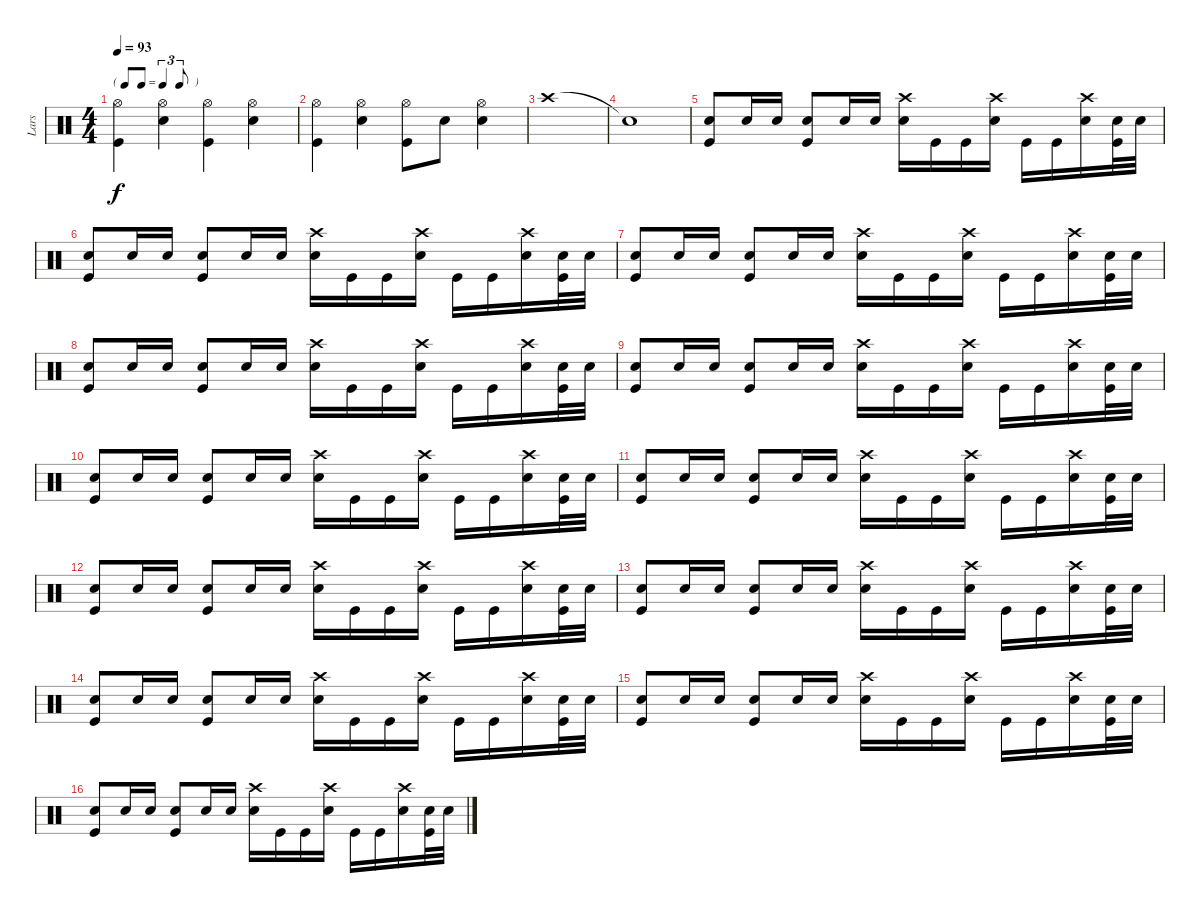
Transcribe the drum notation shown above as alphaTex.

\track ("Lars" "Lars") {instrument percussion}
\staff {score}
\articulation defaults
\ts (4 4)
\tf triplet8th
\tempo 93
\clef neutral
\ks c
("Hi-Hat (open)" "Kick (hit)").4{dy f} ("Hi-Hat (open)" "Snare (hit) 2").4 ("Hi-Hat (open)" "Kick (hit)").4 ("Hi-Hat (open)" "Snare (hit) 2").4 |
("Hi-Hat (open)" "Kick (hit)").4 ("Hi-Hat (open)" "Snare (hit) 2").4 ("Hi-Hat (open)" "Kick (hit)").8 "Snare (hit) 2".8 ("Hi-Hat (open)" "Snare (hit) 2").4 |
"Crash high (hit)".1 |
"Snare (hit)"{t}.1 |
("Snare (hit) 2" "Kick (hit)").8 "Snare (hit) 2".16 "Snare (hit) 2".16 ("Snare (hit) 2" "Kick (hit)").8 "Snare (hit) 2".16 "Snare (hit) 2".16 ("Crash high (hit)" "Snare (hit) 2").16 "Kick (hit)".16 "Kick (hit)".16 ("Crash high (hit)" "Snare (hit) 2").16 "Kick (hit)".16 "Kick (hit)".16 ("Crash high (hit)" "Snare (hit) 2").16 ("Snare (hit) 2" "Kick (hit)").32 "Snare (hit) 2".32 |
("Snare (hit) 2" "Kick (hit)").8 "Snare (hit) 2".16 "Snare (hit) 2".16 ("Snare (hit) 2" "Kick (hit)").8 "Snare (hit) 2".16 "Snare (hit) 2".16 ("Crash high (hit)" "Snare (hit) 2").16 "Kick (hit)".16 "Kick (hit)".16 ("Crash high (hit)" "Snare (hit) 2").16 "Kick (hit)".16 "Kick (hit)".16 ("Crash high (hit)" "Snare (hit) 2").16 ("Snare (hit) 2" "Kick (hit)").32 "Snare (hit) 2".32 |
("Snare (hit) 2" "Kick (hit)").8 "Snare (hit) 2".16 "Snare (hit) 2".16 ("Snare (hit) 2" "Kick (hit)").8 "Snare (hit) 2".16 "Snare (hit) 2".16 ("Crash high (hit)" "Snare (hit) 2").16 "Kick (hit)".16 "Kick (hit)".16 ("Crash high (hit)" "Snare (hit) 2").16 "Kick (hit)".16 "Kick (hit)".16 ("Crash high (hit)" "Snare (hit) 2").16 ("Snare (hit) 2" "Kick (hit)").32 "Snare (hit) 2".32 |
("Snare (hit) 2" "Kick (hit)").8 "Snare (hit) 2".16 "Snare (hit) 2".16 ("Snare (hit) 2" "Kick (hit)").8 "Snare (hit) 2".16 "Snare (hit) 2".16 ("Crash high (hit)" "Snare (hit) 2").16 "Kick (hit)".16 "Kick (hit)".16 ("Crash high (hit)" "Snare (hit) 2").16 "Kick (hit)".16 "Kick (hit)".16 ("Crash high (hit)" "Snare (hit) 2").16 ("Snare (hit) 2" "Kick (hit)").32 "Snare (hit) 2".32 |
("Snare (hit) 2" "Kick (hit)").8 "Snare (hit) 2".16 "Snare (hit) 2".16 ("Snare (hit) 2" "Kick (hit)").8 "Snare (hit) 2".16 "Snare (hit) 2".16 ("Crash high (hit)" "Snare (hit) 2").16 "Kick (hit)".16 "Kick (hit)".16 ("Crash high (hit)" "Snare (hit) 2").16 "Kick (hit)".16 "Kick (hit)".16 ("Crash high (hit)" "Snare (hit) 2").16 ("Snare (hit) 2" "Kick (hit)").32 "Snare (hit) 2".32 |
("Snare (hit) 2" "Kick (hit)").8 "Snare (hit) 2".16 "Snare (hit) 2".16 ("Snare (hit) 2" "Kick (hit)").8 "Snare (hit) 2".16 "Snare (hit) 2".16 ("Crash high (hit)" "Snare (hit) 2").16 "Kick (hit)".16 "Kick (hit)".16 ("Crash high (hit)" "Snare (hit) 2").16 "Kick (hit)".16 "Kick (hit)".16 ("Crash high (hit)" "Snare (hit) 2").16 ("Snare (hit) 2" "Kick (hit)").32 "Snare (hit) 2".32 |
("Snare (hit) 2" "Kick (hit)").8 "Snare (hit) 2".16 "Snare (hit) 2".16 ("Snare (hit) 2" "Kick (hit)").8 "Snare (hit) 2".16 "Snare (hit) 2".16 ("Crash high (hit)" "Snare (hit) 2").16 "Kick (hit)".16 "Kick (hit)".16 ("Crash high (hit)" "Snare (hit) 2").16 "Kick (hit)".16 "Kick (hit)".16 ("Crash high (hit)" "Snare (hit) 2").16 ("Snare (hit) 2" "Kick (hit)").32 "Snare (hit) 2".32 |
("Snare (hit) 2" "Kick (hit)").8 "Snare (hit) 2".16 "Snare (hit) 2".16 ("Snare (hit) 2" "Kick (hit)").8 "Snare (hit) 2".16 "Snare (hit) 2".16 ("Crash high (hit)" "Snare (hit) 2").16 "Kick (hit)".16 "Kick (hit)".16 ("Crash high (hit)" "Snare (hit) 2").16 "Kick (hit)".16 "Kick (hit)".16 ("Crash high (hit)" "Snare (hit) 2").16 ("Snare (hit) 2" "Kick (hit)").32 "Snare (hit) 2".32 |
("Snare (hit) 2" "Kick (hit)").8 "Snare (hit) 2".16 "Snare (hit) 2".16 ("Snare (hit) 2" "Kick (hit)").8 "Snare (hit) 2".16 "Snare (hit) 2".16 ("Crash high (hit)" "Snare (hit) 2").16 "Kick (hit)".16 "Kick (hit)".16 ("Crash high (hit)" "Snare (hit) 2").16 "Kick (hit)".16 "Kick (hit)".16 ("Crash high (hit)" "Snare (hit) 2").16 ("Snare (hit) 2" "Kick (hit)").32 "Snare (hit) 2".32 |
("Snare (hit) 2" "Kick (hit)").8 "Snare (hit) 2".16 "Snare (hit) 2".16 ("Snare (hit) 2" "Kick (hit)").8 "Snare (hit) 2".16 "Snare (hit) 2".16 ("Crash high (hit)" "Snare (hit) 2").16 "Kick (hit)".16 "Kick (hit)".16 ("Crash high (hit)" "Snare (hit) 2").16 "Kick (hit)".16 "Kick (hit)".16 ("Crash high (hit)" "Snare (hit) 2").16 ("Snare (hit) 2" "Kick (hit)").32 "Snare (hit) 2".32 |
("Snare (hit) 2" "Kick (hit)").8 "Snare (hit) 2".16 "Snare (hit) 2".16 ("Snare (hit) 2" "Kick (hit)").8 "Snare (hit) 2".16 "Snare (hit) 2".16 ("Crash high (hit)" "Snare (hit) 2").16 "Kick (hit)".16 "Kick (hit)".16 ("Crash high (hit)" "Snare (hit) 2").16 "Kick (hit)".16 "Kick (hit)".16 ("Crash high (hit)" "Snare (hit) 2").16 ("Snare (hit) 2" "Kick (hit)").32 "Snare (hit) 2".32 |
("Snare (hit) 2" "Kick (hit)").8 "Snare (hit) 2".16 "Snare (hit) 2".16 ("Snare (hit) 2" "Kick (hit)").8 "Snare (hit) 2".16 "Snare (hit) 2".16 ("Crash high (hit)" "Snare (hit) 2").16 "Kick (hit)".16 "Kick (hit)".16 ("Crash high (hit)" "Snare (hit) 2").16 "Kick (hit)".16 "Kick (hit)".16 ("Crash high (hit)" "Snare (hit) 2").16 ("Snare (hit) 2" "Kick (hit)").32 "Snare (hit) 2".32
